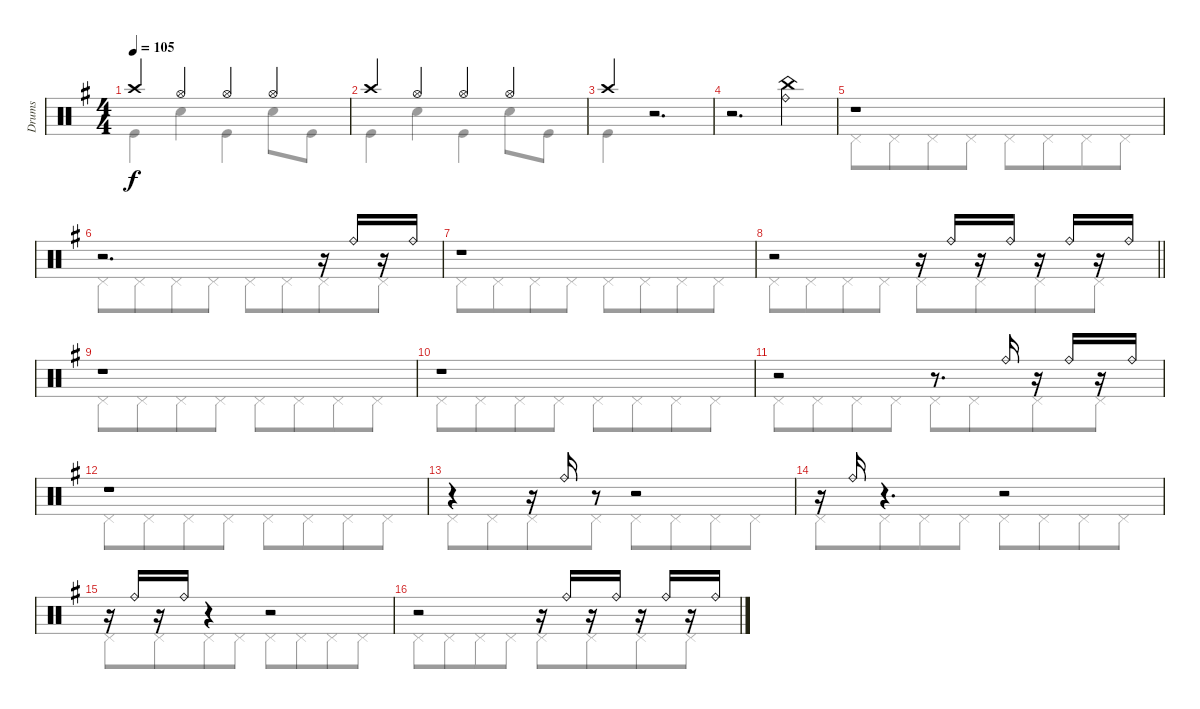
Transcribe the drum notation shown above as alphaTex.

\track ("Drums" "Drums") {instrument percussion}
\staff {score}
\articulation defaults
\voice
\ts (4 4)
\tempo 105
\clef neutral
\ks eminor "Crash high (hit)".4{dy f} "Hi-Hat (open)".4 "Hi-Hat (open)".4 "Hi-Hat (open)".4
|
"Crash high (hit)".4 "Hi-Hat (open)".4 "Hi-Hat (open)".4 "Hi-Hat (open)".4 |
"Crash high (hit)".4 r.2{d} |
r.2{d} ("Ride (bell)" "China (hit)").4 |
r.1 |
r.2{d} r.16 "Ride (bell)".16 r.16 "Ride (bell)".16 |
r.1 |
\barLineRight lightlight
r.2 r.16 "Ride (bell)".16 r.16 "Ride (bell)".16 r.16 "Ride (bell)".16 r.16 "Ride (bell)".16 |
r.1 |
r.1 |
r.2 r.8{d} "Ride (bell)".16 r.16 "Ride (bell)".16 r.16 "Ride (bell)".16 |
r.1 |
r.4 r.16 "Ride (bell)".16 r.8 r.2 |
r.16 "Ride (bell)".16 r.4{d} r.2 |
r.16 "Ride (bell)".16 r.16 "Ride (bell)".16 r.4 r.2 |
r.2 r.16 "Ride (bell)".16 r.16 "Ride (bell)".16 r.16 "Ride (bell)".16 r.16 "Ride (bell)".16
\voice
\clef neutral
\ottava regular
\simile none
\ks eminor "Kick (hit)".4{dy f} "Snare (hit) 2".4 "Kick (hit)".4 "Snare (hit) 2".8 "Kick (hit)".8
|
"Kick (hit)".4 "Snare (hit) 2".4 "Kick (hit)".4 "Snare (hit) 2".8 "Kick (hit)".8 |
"Kick (hit)".4 r.2{d} |
|
"Pedal Hi-Hat (hit)".8 "Pedal Hi-Hat (hit)".8{beam merge} "Pedal Hi-Hat (hit)".8 "Pedal Hi-Hat (hit)".8 "Pedal Hi-Hat (hit)".8 "Pedal Hi-Hat (hit)".8{beam merge} "Pedal Hi-Hat (hit)".8 "Pedal Hi-Hat (hit)".8 |
"Pedal Hi-Hat (hit)".8 "Pedal Hi-Hat (hit)".8{beam merge} "Pedal Hi-Hat (hit)".8 "Pedal Hi-Hat (hit)".8 "Pedal Hi-Hat (hit)".8 "Pedal Hi-Hat (hit)".8{beam merge} "Pedal Hi-Hat (hit)".8 "Pedal Hi-Hat (hit)".8 |
"Pedal Hi-Hat (hit)".8 "Pedal Hi-Hat (hit)".8{beam merge} "Pedal Hi-Hat (hit)".8 "Pedal Hi-Hat (hit)".8 "Pedal Hi-Hat (hit)".8 "Pedal Hi-Hat (hit)".8{beam merge} "Pedal Hi-Hat (hit)".8 "Pedal Hi-Hat (hit)".8 |
\barLineRight lightlight "Pedal Hi-Hat (hit)".8 "Pedal Hi-Hat (hit)".8{beam merge} "Pedal Hi-Hat (hit)".8 "Pedal Hi-Hat (hit)".8 "Pedal Hi-Hat (hit)".8 "Pedal Hi-Hat (hit)".8{beam merge} "Pedal Hi-Hat (hit)".8 "Pedal Hi-Hat (hit)".8
|
"Pedal Hi-Hat (hit)".8 "Pedal Hi-Hat (hit)".8{beam merge} "Pedal Hi-Hat (hit)".8 "Pedal Hi-Hat (hit)".8 "Pedal Hi-Hat (hit)".8 "Pedal Hi-Hat (hit)".8{beam merge} "Pedal Hi-Hat (hit)".8 "Pedal Hi-Hat (hit)".8 |
"Pedal Hi-Hat (hit)".8 "Pedal Hi-Hat (hit)".8{beam merge} "Pedal Hi-Hat (hit)".8 "Pedal Hi-Hat (hit)".8 "Pedal Hi-Hat (hit)".8 "Pedal Hi-Hat (hit)".8{beam merge} "Pedal Hi-Hat (hit)".8 "Pedal Hi-Hat (hit)".8 |
"Pedal Hi-Hat (hit)".8 "Pedal Hi-Hat (hit)".8{beam merge} "Pedal Hi-Hat (hit)".8 "Pedal Hi-Hat (hit)".8 "Pedal Hi-Hat (hit)".8 "Pedal Hi-Hat (hit)".8{beam merge} "Pedal Hi-Hat (hit)".8 "Pedal Hi-Hat (hit)".8 |
"Pedal Hi-Hat (hit)".8 "Pedal Hi-Hat (hit)".8{beam merge} "Pedal Hi-Hat (hit)".8 "Pedal Hi-Hat (hit)".8 "Pedal Hi-Hat (hit)".8 "Pedal Hi-Hat (hit)".8{beam merge} "Pedal Hi-Hat (hit)".8 "Pedal Hi-Hat (hit)".8 |
"Pedal Hi-Hat (hit)".8 "Pedal Hi-Hat (hit)".8{beam merge} "Pedal Hi-Hat (hit)".8 "Pedal Hi-Hat (hit)".8 "Pedal Hi-Hat (hit)".8 "Pedal Hi-Hat (hit)".8{beam merge} "Pedal Hi-Hat (hit)".8 "Pedal Hi-Hat (hit)".8 |
"Pedal Hi-Hat (hit)".8 "Pedal Hi-Hat (hit)".8{beam merge} "Pedal Hi-Hat (hit)".8 "Pedal Hi-Hat (hit)".8 "Pedal Hi-Hat (hit)".8 "Pedal Hi-Hat (hit)".8{beam merge} "Pedal Hi-Hat (hit)".8 "Pedal Hi-Hat (hit)".8 |
"Pedal Hi-Hat (hit)".8 "Pedal Hi-Hat (hit)".8{beam merge} "Pedal Hi-Hat (hit)".8 "Pedal Hi-Hat (hit)".8 "Pedal Hi-Hat (hit)".8 "Pedal Hi-Hat (hit)".8{beam merge} "Pedal Hi-Hat (hit)".8 "Pedal Hi-Hat (hit)".8 |
"Pedal Hi-Hat (hit)".8 "Pedal Hi-Hat (hit)".8{beam merge} "Pedal Hi-Hat (hit)".8 "Pedal Hi-Hat (hit)".8 "Pedal Hi-Hat (hit)".8 "Pedal Hi-Hat (hit)".8{beam merge} "Pedal Hi-Hat (hit)".8 "Pedal Hi-Hat (hit)".8
